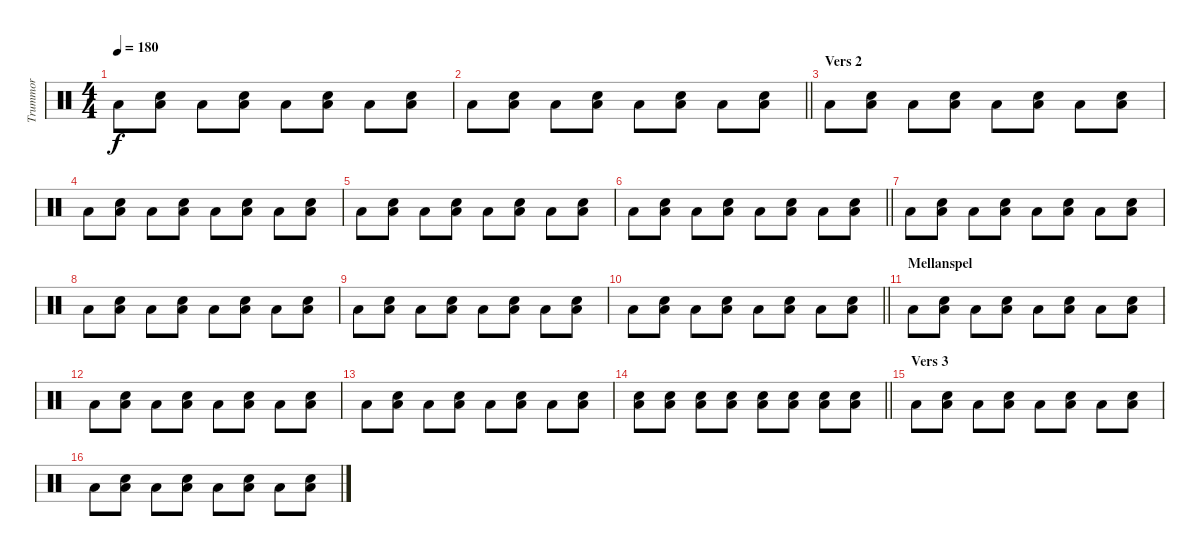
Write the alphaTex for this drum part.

\track ("Trummor" "Trummor") {instrument percussion}
\staff {score}
\articulation defaults
\ts (4 4)
\tempo 180
\clef neutral
\ks c "Low Tom (hit)".8{dy f}
("Low Tom (hit)" "Snare (hit) 2").8 "Low Tom (hit)".8 ("Low Tom (hit)" "Snare (hit) 2").8 "Low Tom (hit)".8 ("Low Tom (hit)" "Snare (hit) 2").8 "Low Tom (hit)".8 ("Low Tom (hit)" "Snare (hit) 2").8 |
\barLineRight lightlight "Low Tom (hit)".8
("Low Tom (hit)" "Snare (hit) 2").8 "Low Tom (hit)".8 ("Low Tom (hit)" "Snare (hit) 2").8 "Low Tom (hit)".8 ("Low Tom (hit)" "Snare (hit) 2").8 "Low Tom (hit)".8 ("Low Tom (hit)" "Snare (hit) 2").8 |
\section ("" "Vers 2")
"Low Tom (hit)".8 ("Low Tom (hit)" "Snare (hit) 2").8 "Low Tom (hit)".8 ("Low Tom (hit)" "Snare (hit) 2").8 "Low Tom (hit)".8 ("Low Tom (hit)" "Snare (hit) 2").8 "Low Tom (hit)".8 ("Low Tom (hit)" "Snare (hit) 2").8 |
"Low Tom (hit)".8 ("Low Tom (hit)" "Snare (hit) 2").8 "Low Tom (hit)".8 ("Low Tom (hit)" "Snare (hit) 2").8 "Low Tom (hit)".8 ("Low Tom (hit)" "Snare (hit) 2").8 "Low Tom (hit)".8 ("Low Tom (hit)" "Snare (hit) 2").8 |
"Low Tom (hit)".8 ("Low Tom (hit)" "Snare (hit) 2").8 "Low Tom (hit)".8 ("Low Tom (hit)" "Snare (hit) 2").8 "Low Tom (hit)".8 ("Low Tom (hit)" "Snare (hit) 2").8 "Low Tom (hit)".8 ("Low Tom (hit)" "Snare (hit) 2").8 |
\barLineRight lightlight "Low Tom (hit)".8
("Low Tom (hit)" "Snare (hit) 2").8 "Low Tom (hit)".8 ("Low Tom (hit)" "Snare (hit) 2").8 "Low Tom (hit)".8 ("Low Tom (hit)" "Snare (hit) 2").8 "Low Tom (hit)".8 ("Low Tom (hit)" "Snare (hit) 2").8 |
"Low Tom (hit)".8 ("Low Tom (hit)" "Snare (hit) 2").8 "Low Tom (hit)".8 ("Low Tom (hit)" "Snare (hit) 2").8 "Low Tom (hit)".8 ("Low Tom (hit)" "Snare (hit) 2").8 "Low Tom (hit)".8 ("Low Tom (hit)" "Snare (hit) 2").8 |
"Low Tom (hit)".8 ("Low Tom (hit)" "Snare (hit) 2").8 "Low Tom (hit)".8 ("Low Tom (hit)" "Snare (hit) 2").8 "Low Tom (hit)".8 ("Low Tom (hit)" "Snare (hit) 2").8 "Low Tom (hit)".8 ("Low Tom (hit)" "Snare (hit) 2").8 |
"Low Tom (hit)".8 ("Low Tom (hit)" "Snare (hit) 2").8 "Low Tom (hit)".8 ("Low Tom (hit)" "Snare (hit) 2").8 "Low Tom (hit)".8 ("Low Tom (hit)" "Snare (hit) 2").8 "Low Tom (hit)".8 ("Low Tom (hit)" "Snare (hit) 2").8 |
\barLineRight lightlight "Low Tom (hit)".8
("Low Tom (hit)" "Snare (hit) 2").8 "Low Tom (hit)".8 ("Low Tom (hit)" "Snare (hit) 2").8 "Low Tom (hit)".8 ("Low Tom (hit)" "Snare (hit) 2").8 "Low Tom (hit)".8 ("Low Tom (hit)" "Snare (hit) 2").8 |
\section ("" "Mellanspel")
"Low Tom (hit)".8 ("Low Tom (hit)" "Snare (hit) 2").8 "Low Tom (hit)".8 ("Low Tom (hit)" "Snare (hit) 2").8 "Low Tom (hit)".8 ("Low Tom (hit)" "Snare (hit) 2").8 "Low Tom (hit)".8 ("Low Tom (hit)" "Snare (hit) 2").8 |
"Low Tom (hit)".8 ("Low Tom (hit)" "Snare (hit) 2").8 "Low Tom (hit)".8 ("Low Tom (hit)" "Snare (hit) 2").8 "Low Tom (hit)".8 ("Low Tom (hit)" "Snare (hit) 2").8 "Low Tom (hit)".8 ("Low Tom (hit)" "Snare (hit) 2").8 |
"Low Tom (hit)".8 ("Low Tom (hit)" "Snare (hit) 2").8 "Low Tom (hit)".8 ("Low Tom (hit)" "Snare (hit) 2").8 "Low Tom (hit)".8 ("Low Tom (hit)" "Snare (hit) 2").8 "Low Tom (hit)".8 ("Low Tom (hit)" "Snare (hit) 2").8 |
\barLineRight lightlight
("Low Tom (hit)" "Snare (hit) 2").8 ("Low Tom (hit)" "Snare (hit) 2").8 ("Low Tom (hit)" "Snare (hit) 2").8 ("Low Tom (hit)" "Snare (hit) 2").8 ("Low Tom (hit)" "Snare (hit) 2").8 ("Low Tom (hit)" "Snare (hit) 2").8 ("Low Tom (hit)" "Snare (hit) 2").8 ("Low Tom (hit)" "Snare (hit) 2").8 |
\section ("" "Vers 3")
"Low Tom (hit)".8 ("Low Tom (hit)" "Snare (hit) 2").8 "Low Tom (hit)".8 ("Low Tom (hit)" "Snare (hit) 2").8 "Low Tom (hit)".8 ("Low Tom (hit)" "Snare (hit) 2").8 "Low Tom (hit)".8 ("Low Tom (hit)" "Snare (hit) 2").8 |
"Low Tom (hit)".8 ("Low Tom (hit)" "Snare (hit) 2").8 "Low Tom (hit)".8 ("Low Tom (hit)" "Snare (hit) 2").8 "Low Tom (hit)".8 ("Low Tom (hit)" "Snare (hit) 2").8 "Low Tom (hit)".8 ("Low Tom (hit)" "Snare (hit) 2").8
